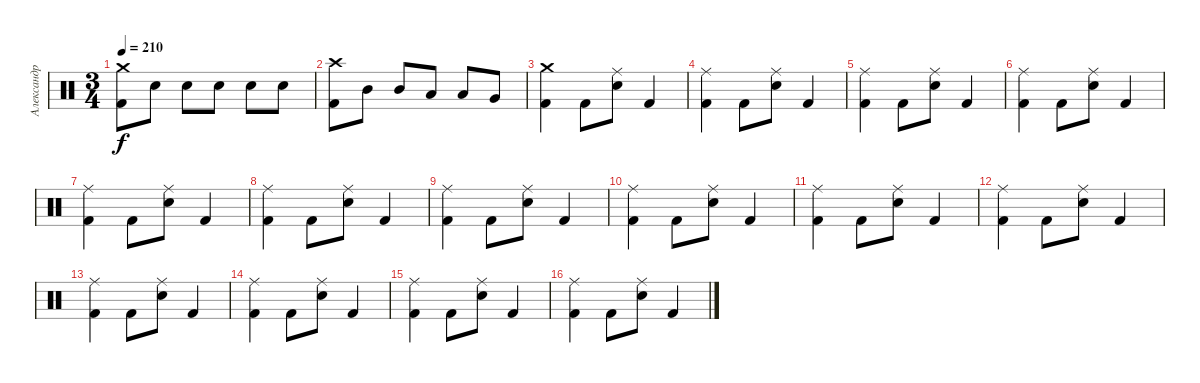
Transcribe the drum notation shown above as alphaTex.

\track ("Александр Манякин" "Александр ") {instrument percussion}
\staff {score}
\articulation defaults
\ts (3 4)
\tempo 210
\clef neutral
\ks c
("Crash medium (hit)" "Kick (hit) 2").8{dy f} "Snare (hit) 2".8 "Snare (hit) 2".8 "Snare (hit) 2".8 "Snare (hit) 2".8 "Snare (hit) 2".8 |
("Crash high (hit)" "Kick (hit) 2").8 "Mid Tom (hit)".8 "Mid Tom (hit)".8 "Low Tom (hit)".8 "Low Tom (hit)".8 "Very Low Tom (hit)".8 |
("Crash medium (hit)" "Kick (hit) 2").4 "Kick (hit) 2".8 ("Ride (middle)" "Snare (hit) 2").8 "Kick (hit) 2".4 |
("Ride (middle)" "Kick (hit) 2").4 "Kick (hit) 2".8 ("Ride (middle)" "Snare (hit) 2").8 "Kick (hit) 2".4 |
("Ride (middle)" "Kick (hit) 2").4 "Kick (hit) 2".8 ("Ride (middle)" "Snare (hit) 2").8 "Kick (hit) 2".4 |
("Ride (middle)" "Kick (hit) 2").4 "Kick (hit) 2".8 ("Ride (middle)" "Snare (hit) 2").8 "Kick (hit) 2".4 |
("Ride (middle)" "Kick (hit) 2").4 "Kick (hit) 2".8 ("Ride (middle)" "Snare (hit) 2").8 "Kick (hit) 2".4 |
("Ride (middle)" "Kick (hit) 2").4 "Kick (hit) 2".8 ("Ride (middle)" "Snare (hit) 2").8 "Kick (hit) 2".4 |
("Ride (middle)" "Kick (hit) 2").4 "Kick (hit) 2".8 ("Ride (middle)" "Snare (hit) 2").8 "Kick (hit) 2".4 |
("Ride (middle)" "Kick (hit) 2").4 "Kick (hit) 2".8 ("Ride (middle)" "Snare (hit) 2").8 "Kick (hit) 2".4 |
("Ride (middle)" "Kick (hit) 2").4 "Kick (hit) 2".8 ("Ride (middle)" "Snare (hit) 2").8 "Kick (hit) 2".4 |
("Ride (middle)" "Kick (hit) 2").4 "Kick (hit) 2".8 ("Ride (middle)" "Snare (hit) 2").8 "Kick (hit) 2".4 |
("Ride (middle)" "Kick (hit) 2").4 "Kick (hit) 2".8 ("Ride (middle)" "Snare (hit) 2").8 "Kick (hit) 2".4 |
("Ride (middle)" "Kick (hit) 2").4 "Kick (hit) 2".8 ("Ride (middle)" "Snare (hit) 2").8 "Kick (hit) 2".4 |
("Ride (middle)" "Kick (hit) 2").4 "Kick (hit) 2".8 ("Ride (middle)" "Snare (hit) 2").8 "Kick (hit) 2".4 |
("Ride (middle)" "Kick (hit) 2").4 "Kick (hit) 2".8 ("Ride (middle)" "Snare (hit) 2").8 "Kick (hit) 2".4
